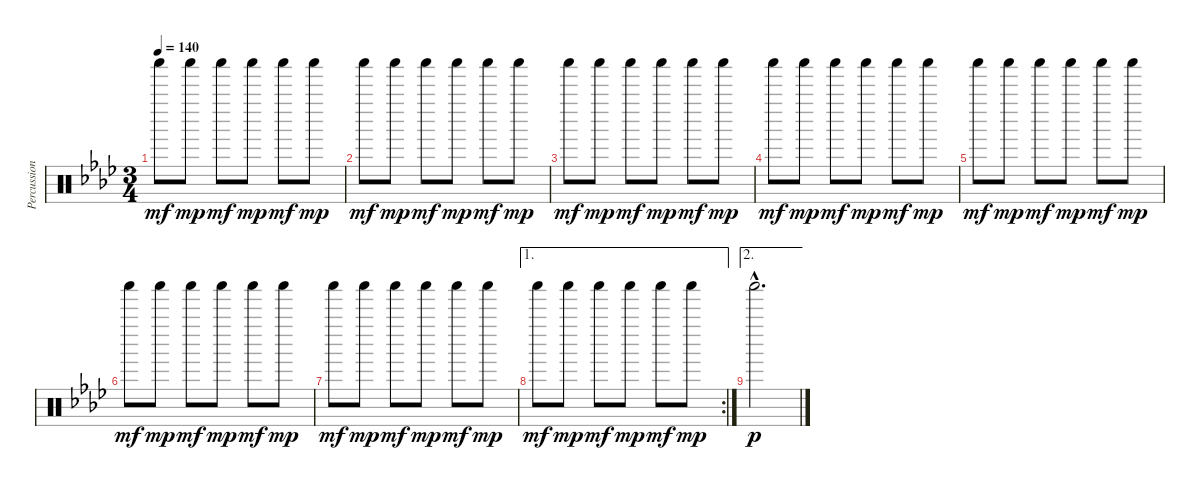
\track ("Percussion" "Percussion") {instrument percussion}
\staff {score}
\articulation defaults
\ts (3 4)
\tempo 140
\clef neutral
\ks fminor "Shaker (hit)".8{dy mf} "Shaker (hit)".8{dy mp} "Shaker (hit)".8{dy mf} "Shaker (hit)".8{dy mp} "Shaker (hit)".8{dy mf} "Shaker (hit)".8{dy mp}
|
"Shaker (hit)".8{dy mf} "Shaker (hit)".8{dy mp} "Shaker (hit)".8{dy mf} "Shaker (hit)".8{dy mp} "Shaker (hit)".8{dy mf} "Shaker (hit)".8{dy mp} |
"Shaker (hit)".8{dy mf} "Shaker (hit)".8{dy mp} "Shaker (hit)".8{dy mf} "Shaker (hit)".8{dy mp} "Shaker (hit)".8{dy mf} "Shaker (hit)".8{dy mp} |
"Shaker (hit)".8{dy mf} "Shaker (hit)".8{dy mp} "Shaker (hit)".8{dy mf} "Shaker (hit)".8{dy mp} "Shaker (hit)".8{dy mf} "Shaker (hit)".8{dy mp} |
"Shaker (hit)".8{dy mf} "Shaker (hit)".8{dy mp} "Shaker (hit)".8{dy mf} "Shaker (hit)".8{dy mp} "Shaker (hit)".8{dy mf} "Shaker (hit)".8{dy mp} |
"Shaker (hit)".8{dy mf} "Shaker (hit)".8{dy mp} "Shaker (hit)".8{dy mf} "Shaker (hit)".8{dy mp} "Shaker (hit)".8{dy mf} "Shaker (hit)".8{dy mp} |
"Shaker (hit)".8{dy mf} "Shaker (hit)".8{dy mp} "Shaker (hit)".8{dy mf} "Shaker (hit)".8{dy mp} "Shaker (hit)".8{dy mf} "Shaker (hit)".8{dy mp} |
\ae 1
\rc 2 "Shaker (hit)".8{dy mf} "Shaker (hit)".8{dy mp} "Shaker (hit)".8{dy mf} "Shaker (hit)".8{dy mp} "Shaker (hit)".8{dy mf} "Shaker (hit)".8{dy mp}
|
\ae 2 "Shaker (hit)"{tr (82 32) hac}.2{d dy p}
